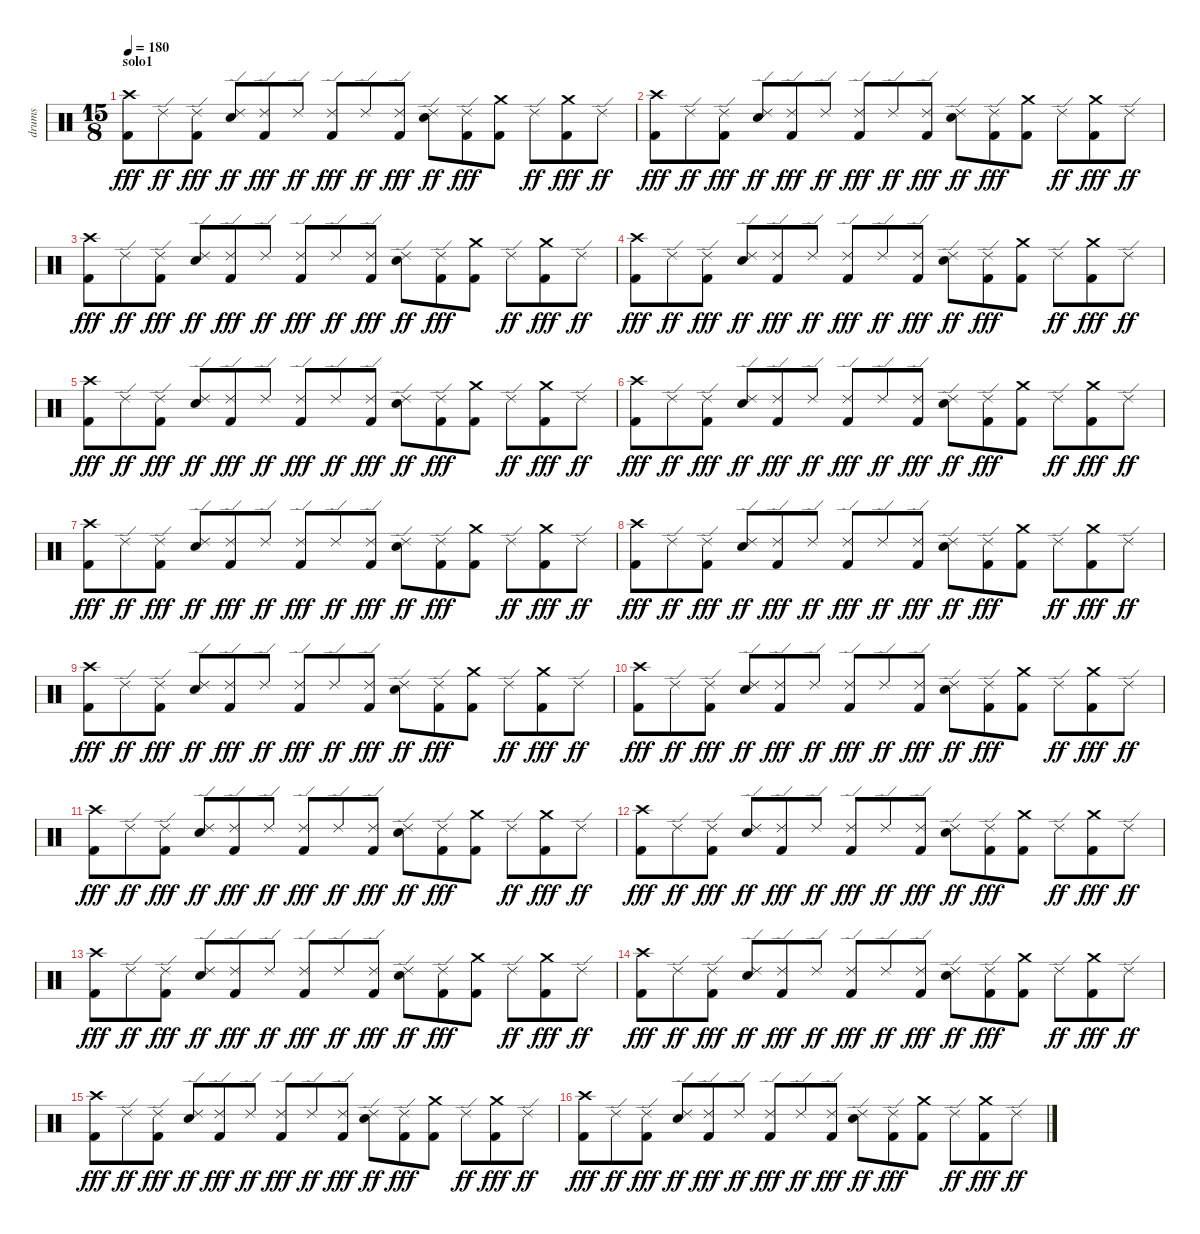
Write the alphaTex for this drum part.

\track ("drums" "drums") {instrument percussion}
\staff {score}
\articulation defaults
\ts (15 8)
\section ("" "solo1")
\tempo 180
\clef neutral
\ks c
("Crash high (hit)" "Kick (hit) 2").8{dy fff} "Ride (edge) 2".8{dy ff} ("Ride (edge) 2" "Kick (hit) 2").8{dy fff} ("Ride (edge) 2" "Snare (hit) 2").8{dy ff} ("Ride (edge) 2" "Kick (hit) 2").8{dy fff} "Ride (edge) 2".8{dy ff} ("Ride (edge) 2" "Kick (hit) 2").8{dy fff} "Ride (edge) 2".8{dy ff} ("Ride (edge) 2" "Kick (hit) 2").8{dy fff} ("Ride (edge) 2" "Snare (hit) 2").8{dy ff} ("Ride (edge) 2" "Kick (hit) 2").8{dy fff} ("Crash medium (hit)" "Kick (hit) 2").8 "Ride (edge) 2".8{dy ff} ("Crash medium (hit)" "Kick (hit) 2").8{dy fff} "Ride (edge) 2".8{dy ff} |
("Crash high (hit)" "Kick (hit) 2").8{dy fff} "Ride (edge) 2".8{dy ff} ("Ride (edge) 2" "Kick (hit) 2").8{dy fff} ("Ride (edge) 2" "Snare (hit) 2").8{dy ff} ("Ride (edge) 2" "Kick (hit) 2").8{dy fff} "Ride (edge) 2".8{dy ff} ("Ride (edge) 2" "Kick (hit) 2").8{dy fff} "Ride (edge) 2".8{dy ff} ("Ride (edge) 2" "Kick (hit) 2").8{dy fff} ("Ride (edge) 2" "Snare (hit) 2").8{dy ff} ("Ride (edge) 2" "Kick (hit) 2").8{dy fff} ("Crash medium (hit)" "Kick (hit) 2").8 "Ride (edge) 2".8{dy ff} ("Crash medium (hit)" "Kick (hit) 2").8{dy fff} "Ride (edge) 2".8{dy ff} |
("Crash high (hit)" "Kick (hit) 2").8{dy fff} "Ride (edge) 2".8{dy ff} ("Ride (edge) 2" "Kick (hit) 2").8{dy fff} ("Ride (edge) 2" "Snare (hit) 2").8{dy ff} ("Ride (edge) 2" "Kick (hit) 2").8{dy fff} "Ride (edge) 2".8{dy ff} ("Ride (edge) 2" "Kick (hit) 2").8{dy fff} "Ride (edge) 2".8{dy ff} ("Ride (edge) 2" "Kick (hit) 2").8{dy fff} ("Ride (edge) 2" "Snare (hit) 2").8{dy ff} ("Ride (edge) 2" "Kick (hit) 2").8{dy fff} ("Crash medium (hit)" "Kick (hit) 2").8 "Ride (edge) 2".8{dy ff} ("Crash medium (hit)" "Kick (hit) 2").8{dy fff} "Ride (edge) 2".8{dy ff} |
("Crash high (hit)" "Kick (hit) 2").8{dy fff} "Ride (edge) 2".8{dy ff} ("Ride (edge) 2" "Kick (hit) 2").8{dy fff} ("Ride (edge) 2" "Snare (hit) 2").8{dy ff} ("Ride (edge) 2" "Kick (hit) 2").8{dy fff} "Ride (edge) 2".8{dy ff} ("Ride (edge) 2" "Kick (hit) 2").8{dy fff} "Ride (edge) 2".8{dy ff} ("Ride (edge) 2" "Kick (hit) 2").8{dy fff} ("Ride (edge) 2" "Snare (hit) 2").8{dy ff} ("Ride (edge) 2" "Kick (hit) 2").8{dy fff} ("Crash medium (hit)" "Kick (hit) 2").8 "Ride (edge) 2".8{dy ff} ("Crash medium (hit)" "Kick (hit) 2").8{dy fff} "Ride (edge) 2".8{dy ff} |
("Crash high (hit)" "Kick (hit) 2").8{dy fff} "Ride (edge) 2".8{dy ff} ("Ride (edge) 2" "Kick (hit) 2").8{dy fff} ("Ride (edge) 2" "Snare (hit) 2").8{dy ff} ("Ride (edge) 2" "Kick (hit) 2").8{dy fff} "Ride (edge) 2".8{dy ff} ("Ride (edge) 2" "Kick (hit) 2").8{dy fff} "Ride (edge) 2".8{dy ff} ("Ride (edge) 2" "Kick (hit) 2").8{dy fff} ("Ride (edge) 2" "Snare (hit) 2").8{dy ff} ("Ride (edge) 2" "Kick (hit) 2").8{dy fff} ("Crash medium (hit)" "Kick (hit) 2").8 "Ride (edge) 2".8{dy ff} ("Crash medium (hit)" "Kick (hit) 2").8{dy fff} "Ride (edge) 2".8{dy ff} |
("Crash high (hit)" "Kick (hit) 2").8{dy fff} "Ride (edge) 2".8{dy ff} ("Ride (edge) 2" "Kick (hit) 2").8{dy fff} ("Ride (edge) 2" "Snare (hit) 2").8{dy ff} ("Ride (edge) 2" "Kick (hit) 2").8{dy fff} "Ride (edge) 2".8{dy ff} ("Ride (edge) 2" "Kick (hit) 2").8{dy fff} "Ride (edge) 2".8{dy ff} ("Ride (edge) 2" "Kick (hit) 2").8{dy fff} ("Ride (edge) 2" "Snare (hit) 2").8{dy ff} ("Ride (edge) 2" "Kick (hit) 2").8{dy fff} ("Crash medium (hit)" "Kick (hit) 2").8 "Ride (edge) 2".8{dy ff} ("Crash medium (hit)" "Kick (hit) 2").8{dy fff} "Ride (edge) 2".8{dy ff} |
("Crash high (hit)" "Kick (hit) 2").8{dy fff} "Ride (edge) 2".8{dy ff} ("Ride (edge) 2" "Kick (hit) 2").8{dy fff} ("Ride (edge) 2" "Snare (hit) 2").8{dy ff} ("Ride (edge) 2" "Kick (hit) 2").8{dy fff} "Ride (edge) 2".8{dy ff} ("Ride (edge) 2" "Kick (hit) 2").8{dy fff} "Ride (edge) 2".8{dy ff} ("Ride (edge) 2" "Kick (hit) 2").8{dy fff} ("Ride (edge) 2" "Snare (hit) 2").8{dy ff} ("Ride (edge) 2" "Kick (hit) 2").8{dy fff} ("Crash medium (hit)" "Kick (hit) 2").8 "Ride (edge) 2".8{dy ff} ("Crash medium (hit)" "Kick (hit) 2").8{dy fff} "Ride (edge) 2".8{dy ff} |
("Crash high (hit)" "Kick (hit) 2").8{dy fff} "Ride (edge) 2".8{dy ff} ("Ride (edge) 2" "Kick (hit) 2").8{dy fff} ("Ride (edge) 2" "Snare (hit) 2").8{dy ff} ("Ride (edge) 2" "Kick (hit) 2").8{dy fff} "Ride (edge) 2".8{dy ff} ("Ride (edge) 2" "Kick (hit) 2").8{dy fff} "Ride (edge) 2".8{dy ff} ("Ride (edge) 2" "Kick (hit) 2").8{dy fff} ("Ride (edge) 2" "Snare (hit) 2").8{dy ff} ("Ride (edge) 2" "Kick (hit) 2").8{dy fff} ("Crash medium (hit)" "Kick (hit) 2").8 "Ride (edge) 2".8{dy ff} ("Crash medium (hit)" "Kick (hit) 2").8{dy fff} "Ride (edge) 2".8{dy ff} |
("Crash high (hit)" "Kick (hit) 2").8{dy fff} "Ride (edge) 2".8{dy ff} ("Ride (edge) 2" "Kick (hit) 2").8{dy fff} ("Ride (edge) 2" "Snare (hit) 2").8{dy ff} ("Ride (edge) 2" "Kick (hit) 2").8{dy fff} "Ride (edge) 2".8{dy ff} ("Ride (edge) 2" "Kick (hit) 2").8{dy fff} "Ride (edge) 2".8{dy ff} ("Ride (edge) 2" "Kick (hit) 2").8{dy fff} ("Ride (edge) 2" "Snare (hit) 2").8{dy ff} ("Ride (edge) 2" "Kick (hit) 2").8{dy fff} ("Crash medium (hit)" "Kick (hit) 2").8 "Ride (edge) 2".8{dy ff} ("Crash medium (hit)" "Kick (hit) 2").8{dy fff} "Ride (edge) 2".8{dy ff} |
("Crash high (hit)" "Kick (hit) 2").8{dy fff} "Ride (edge) 2".8{dy ff} ("Ride (edge) 2" "Kick (hit) 2").8{dy fff} ("Ride (edge) 2" "Snare (hit) 2").8{dy ff} ("Ride (edge) 2" "Kick (hit) 2").8{dy fff} "Ride (edge) 2".8{dy ff} ("Ride (edge) 2" "Kick (hit) 2").8{dy fff} "Ride (edge) 2".8{dy ff} ("Ride (edge) 2" "Kick (hit) 2").8{dy fff} ("Ride (edge) 2" "Snare (hit) 2").8{dy ff} ("Ride (edge) 2" "Kick (hit) 2").8{dy fff} ("Crash medium (hit)" "Kick (hit) 2").8 "Ride (edge) 2".8{dy ff} ("Crash medium (hit)" "Kick (hit) 2").8{dy fff} "Ride (edge) 2".8{dy ff} |
("Crash high (hit)" "Kick (hit) 2").8{dy fff} "Ride (edge) 2".8{dy ff} ("Ride (edge) 2" "Kick (hit) 2").8{dy fff} ("Ride (edge) 2" "Snare (hit) 2").8{dy ff} ("Ride (edge) 2" "Kick (hit) 2").8{dy fff} "Ride (edge) 2".8{dy ff} ("Ride (edge) 2" "Kick (hit) 2").8{dy fff} "Ride (edge) 2".8{dy ff} ("Ride (edge) 2" "Kick (hit) 2").8{dy fff} ("Ride (edge) 2" "Snare (hit) 2").8{dy ff} ("Ride (edge) 2" "Kick (hit) 2").8{dy fff} ("Crash medium (hit)" "Kick (hit) 2").8 "Ride (edge) 2".8{dy ff} ("Crash medium (hit)" "Kick (hit) 2").8{dy fff} "Ride (edge) 2".8{dy ff} |
("Crash high (hit)" "Kick (hit) 2").8{dy fff} "Ride (edge) 2".8{dy ff} ("Ride (edge) 2" "Kick (hit) 2").8{dy fff} ("Ride (edge) 2" "Snare (hit) 2").8{dy ff} ("Ride (edge) 2" "Kick (hit) 2").8{dy fff} "Ride (edge) 2".8{dy ff} ("Ride (edge) 2" "Kick (hit) 2").8{dy fff} "Ride (edge) 2".8{dy ff} ("Ride (edge) 2" "Kick (hit) 2").8{dy fff} ("Ride (edge) 2" "Snare (hit) 2").8{dy ff} ("Ride (edge) 2" "Kick (hit) 2").8{dy fff} ("Crash medium (hit)" "Kick (hit) 2").8 "Ride (edge) 2".8{dy ff} ("Crash medium (hit)" "Kick (hit) 2").8{dy fff} "Ride (edge) 2".8{dy ff} |
("Crash high (hit)" "Kick (hit) 2").8{dy fff} "Ride (edge) 2".8{dy ff} ("Ride (edge) 2" "Kick (hit) 2").8{dy fff} ("Ride (edge) 2" "Snare (hit) 2").8{dy ff} ("Ride (edge) 2" "Kick (hit) 2").8{dy fff} "Ride (edge) 2".8{dy ff} ("Ride (edge) 2" "Kick (hit) 2").8{dy fff} "Ride (edge) 2".8{dy ff} ("Ride (edge) 2" "Kick (hit) 2").8{dy fff} ("Ride (edge) 2" "Snare (hit) 2").8{dy ff} ("Ride (edge) 2" "Kick (hit) 2").8{dy fff} ("Crash medium (hit)" "Kick (hit) 2").8 "Ride (edge) 2".8{dy ff} ("Crash medium (hit)" "Kick (hit) 2").8{dy fff} "Ride (edge) 2".8{dy ff} |
("Crash high (hit)" "Kick (hit) 2").8{dy fff} "Ride (edge) 2".8{dy ff} ("Ride (edge) 2" "Kick (hit) 2").8{dy fff} ("Ride (edge) 2" "Snare (hit) 2").8{dy ff} ("Ride (edge) 2" "Kick (hit) 2").8{dy fff} "Ride (edge) 2".8{dy ff} ("Ride (edge) 2" "Kick (hit) 2").8{dy fff} "Ride (edge) 2".8{dy ff} ("Ride (edge) 2" "Kick (hit) 2").8{dy fff} ("Ride (edge) 2" "Snare (hit) 2").8{dy ff} ("Ride (edge) 2" "Kick (hit) 2").8{dy fff} ("Crash medium (hit)" "Kick (hit) 2").8 "Ride (edge) 2".8{dy ff} ("Crash medium (hit)" "Kick (hit) 2").8{dy fff} "Ride (edge) 2".8{dy ff} |
("Crash high (hit)" "Kick (hit) 2").8{dy fff} "Ride (edge) 2".8{dy ff} ("Ride (edge) 2" "Kick (hit) 2").8{dy fff} ("Ride (edge) 2" "Snare (hit) 2").8{dy ff} ("Ride (edge) 2" "Kick (hit) 2").8{dy fff} "Ride (edge) 2".8{dy ff} ("Ride (edge) 2" "Kick (hit) 2").8{dy fff} "Ride (edge) 2".8{dy ff} ("Ride (edge) 2" "Kick (hit) 2").8{dy fff} ("Ride (edge) 2" "Snare (hit) 2").8{dy ff} ("Ride (edge) 2" "Kick (hit) 2").8{dy fff} ("Crash medium (hit)" "Kick (hit) 2").8 "Ride (edge) 2".8{dy ff} ("Crash medium (hit)" "Kick (hit) 2").8{dy fff} "Ride (edge) 2".8{dy ff} |
("Crash high (hit)" "Kick (hit) 2").8{dy fff} "Ride (edge) 2".8{dy ff} ("Ride (edge) 2" "Kick (hit) 2").8{dy fff} ("Ride (edge) 2" "Snare (hit) 2").8{dy ff} ("Ride (edge) 2" "Kick (hit) 2").8{dy fff} "Ride (edge) 2".8{dy ff} ("Ride (edge) 2" "Kick (hit) 2").8{dy fff} "Ride (edge) 2".8{dy ff} ("Ride (edge) 2" "Kick (hit) 2").8{dy fff} ("Ride (edge) 2" "Snare (hit) 2").8{dy ff} ("Ride (edge) 2" "Kick (hit) 2").8{dy fff} ("Crash medium (hit)" "Kick (hit) 2").8 "Ride (edge) 2".8{dy ff} ("Crash medium (hit)" "Kick (hit) 2").8{dy fff} "Ride (edge) 2".8{dy ff}
